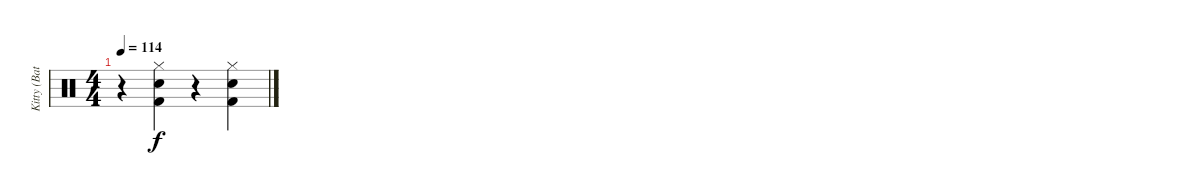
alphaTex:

\track ("Kitty (Bataca)" "Kitty (Bat") {instrument percussion}
\staff {score}
\articulation defaults
\ts (4 4)
\tempo 114
\clef neutral
\ks c
r.4{dy f} ("Hi-Hat (closed)" "Electric Snare (hit)" "Kick (hit) 2").4 r.4 ("Hi-Hat (closed)" "Snare (hit) 2" "Kick (hit) 2").4
